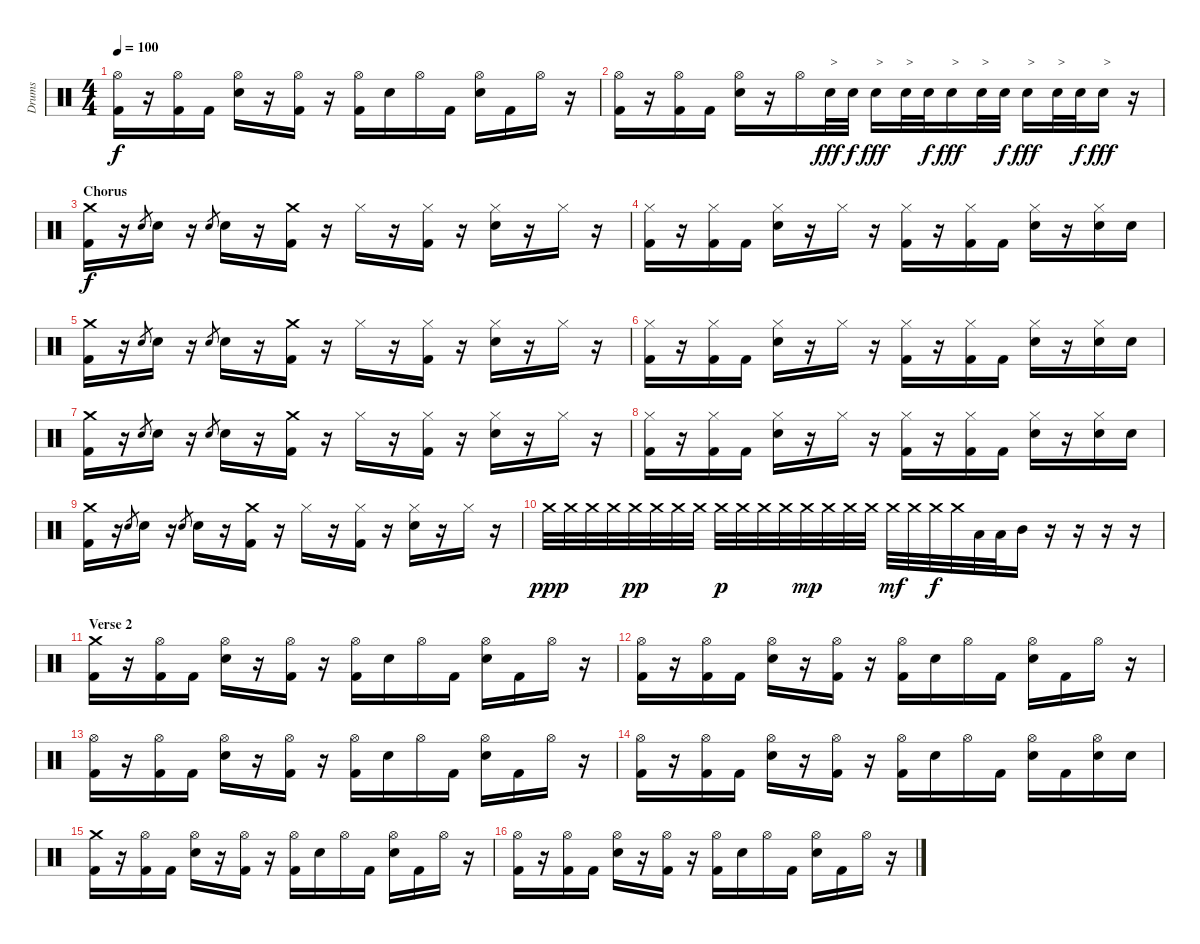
\track ("Drums" "Drums") {instrument percussion}
\staff {score}
\articulation defaults
\ts (4 4)
\tempo 100
\clef neutral
\ks c
("Hi-Hat (open)" "Kick (hit) 2").16{dy f} r.16 ("Hi-Hat (open)" "Kick (hit) 2").16 "Kick (hit) 2".16 ("Hi-Hat (open)" "Snare (hit) 2").16 r.16 ("Hi-Hat (open)" "Kick (hit) 2").16 r.16 ("Hi-Hat (open)" "Kick (hit) 2").16 "Snare (hit) 2".16 "Hi-Hat (open)".16 "Kick (hit) 2".16 ("Hi-Hat (open)" "Snare (hit) 2").16 "Kick (hit) 2".16 "Hi-Hat (open)".16 r.16 |
("Hi-Hat (open)" "Kick (hit) 2").16 r.16 ("Hi-Hat (open)" "Kick (hit) 2").16 "Kick (hit) 2".16 ("Hi-Hat (open)" "Snare (hit) 2").16 r.16 "Hi-Hat (open)".16 "Snare (hit) 2".32{txt ">" dy fff} "Snare (hit) 2".32{dy f} "Snare (hit) 2".16{txt ">" dy fff} "Snare (hit) 2".32{txt ">"} "Snare (hit) 2".32{dy f} "Snare (hit) 2".16{txt ">" dy fff} "Snare (hit) 2".32{txt ">"} "Snare (hit) 2".32{dy f} "Snare (hit) 2".16{txt ">" dy fff} "Snare (hit) 2".32{txt ">"} "Snare (hit) 2".32{dy f} "Snare (hit) 2".16{txt ">" dy fff} r.16 |
\section ("" "Chorus")
("Crash medium (hit)" "Kick (hit) 2").16{dy f} r.16 "Snare (hit) 2".8{gr} "Snare (hit) 2".16 r.16 "Snare (hit) 2".8{gr} "Snare (hit) 2".16 r.16 ("Crash medium (hit)" "Kick (hit) 2").16 r.16 "Hi-Hat (closed)".16 r.16 ("Hi-Hat (closed)" "Kick (hit) 2").16 r.16 ("Hi-Hat (closed)" "Snare (hit) 2").16 r.16 "Hi-Hat (closed)".16 r.16 |
("Hi-Hat (closed)" "Kick (hit) 2").16 r.16 ("Hi-Hat (closed)" "Kick (hit) 2").16 "Kick (hit) 2".16 ("Hi-Hat (closed)" "Snare (hit) 2").16 r.16 "Hi-Hat (closed)".16 r.16 ("Hi-Hat (closed)" "Kick (hit) 2").16 r.16 ("Hi-Hat (closed)" "Kick (hit) 2").16 "Kick (hit) 2".16 ("Hi-Hat (closed)" "Snare (hit) 2").16 r.16 ("Hi-Hat (closed)" "Snare (hit) 2").16 "Snare (hit) 2".16 |
("Crash medium (hit)" "Kick (hit) 2").16 r.16 "Snare (hit) 2".8{gr} "Snare (hit) 2".16 r.16 "Snare (hit) 2".8{gr} "Snare (hit) 2".16 r.16 ("Crash medium (hit)" "Kick (hit) 2").16 r.16 "Hi-Hat (closed)".16 r.16 ("Hi-Hat (closed)" "Kick (hit) 2").16 r.16 ("Hi-Hat (closed)" "Snare (hit) 2").16 r.16 "Hi-Hat (closed)".16 r.16 |
("Hi-Hat (closed)" "Kick (hit) 2").16 r.16 ("Hi-Hat (closed)" "Kick (hit) 2").16 "Kick (hit) 2".16 ("Hi-Hat (closed)" "Snare (hit) 2").16 r.16 "Hi-Hat (closed)".16 r.16 ("Hi-Hat (closed)" "Kick (hit) 2").16 r.16 ("Hi-Hat (closed)" "Kick (hit) 2").16 "Kick (hit) 2".16 ("Hi-Hat (closed)" "Snare (hit) 2").16 r.16 ("Hi-Hat (closed)" "Snare (hit) 2").16 "Snare (hit) 2".16 |
("Crash medium (hit)" "Kick (hit) 2").16 r.16 "Snare (hit) 2".8{gr} "Snare (hit) 2".16 r.16 "Snare (hit) 2".8{gr} "Snare (hit) 2".16 r.16 ("Crash medium (hit)" "Kick (hit) 2").16 r.16 "Hi-Hat (closed)".16 r.16 ("Hi-Hat (closed)" "Kick (hit) 2").16 r.16 ("Hi-Hat (closed)" "Snare (hit) 2").16 r.16 "Hi-Hat (closed)".16 r.16 |
("Hi-Hat (closed)" "Kick (hit) 2").16 r.16 ("Hi-Hat (closed)" "Kick (hit) 2").16 "Kick (hit) 2".16 ("Hi-Hat (closed)" "Snare (hit) 2").16 r.16 "Hi-Hat (closed)".16 r.16 ("Hi-Hat (closed)" "Kick (hit) 2").16 r.16 ("Hi-Hat (closed)" "Kick (hit) 2").16 "Kick (hit) 2".16 ("Hi-Hat (closed)" "Snare (hit) 2").16 r.16 ("Hi-Hat (closed)" "Snare (hit) 2").16 "Snare (hit) 2".16 |
("Crash medium (hit)" "Kick (hit) 2").16 r.16 "Snare (hit) 2".8{gr} "Snare (hit) 2".16 r.16 "Snare (hit) 2".8{gr} "Snare (hit) 2".16 r.16 ("Crash medium (hit)" "Kick (hit) 2").16 r.16 "Hi-Hat (closed)".16 r.16 ("Hi-Hat (closed)" "Kick (hit) 2").16 r.16 ("Hi-Hat (closed)" "Snare (hit) 2").16 r.16 "Hi-Hat (closed)".16 r.16 |
"Crash medium (hit)".32{dy ppp} "Crash medium (hit)".32 "Crash medium (hit)".32 "Crash medium (hit)".32 "Crash medium (hit)".32{dy pp} "Crash medium (hit)".32 "Crash medium (hit)".32 "Crash medium (hit)".32 "Crash medium (hit)".32{dy p} "Crash medium (hit)".32 "Crash medium (hit)".32 "Crash medium (hit)".32 "Crash medium (hit)".32{dy mp} "Crash medium (hit)".32 "Crash medium (hit)".32 "Crash medium (hit)".32 "Crash medium (hit)".32{dy mf} "Crash medium (hit)".32 "Crash medium (hit)".32{dy f} "Crash medium (hit)".32 "Low Floor Tom (hit)".32 "Low Floor Tom (hit)".32 "Mid Tom (hit)".16 r.16 r.16 r.16 r.16 |
\section ("" "Verse 2")
("Crash medium (hit)" "Kick (hit) 2").16 r.16 ("Hi-Hat (open)" "Kick (hit) 2").16 "Kick (hit) 2".16 ("Hi-Hat (open)" "Snare (hit) 2").16 r.16 ("Hi-Hat (open)" "Kick (hit) 2").16 r.16 ("Hi-Hat (open)" "Kick (hit) 2").16 "Snare (hit) 2".16 "Hi-Hat (open)".16 "Kick (hit) 2".16 ("Hi-Hat (open)" "Snare (hit) 2").16 "Kick (hit) 2".16 "Hi-Hat (open)".16 r.16 |
("Hi-Hat (open)" "Kick (hit) 2").16 r.16 ("Hi-Hat (open)" "Kick (hit) 2").16 "Kick (hit) 2".16 ("Hi-Hat (open)" "Snare (hit) 2").16 r.16 ("Hi-Hat (open)" "Kick (hit) 2").16 r.16 ("Hi-Hat (open)" "Kick (hit) 2").16 "Snare (hit) 2".16 "Hi-Hat (open)".16 "Kick (hit) 2".16 ("Hi-Hat (open)" "Snare (hit) 2").16 "Kick (hit) 2".16 "Hi-Hat (open)".16 r.16 |
("Hi-Hat (open)" "Kick (hit) 2").16 r.16 ("Hi-Hat (open)" "Kick (hit) 2").16 "Kick (hit) 2".16 ("Hi-Hat (open)" "Snare (hit) 2").16 r.16 ("Hi-Hat (open)" "Kick (hit) 2").16 r.16 ("Hi-Hat (open)" "Kick (hit) 2").16 "Snare (hit) 2".16 "Hi-Hat (open)".16 "Kick (hit) 2".16 ("Hi-Hat (open)" "Snare (hit) 2").16 "Kick (hit) 2".16 "Hi-Hat (open)".16 r.16 |
("Hi-Hat (open)" "Kick (hit) 2").16 r.16 ("Hi-Hat (open)" "Kick (hit) 2").16 "Kick (hit) 2".16 ("Hi-Hat (open)" "Snare (hit) 2").16 r.16 ("Hi-Hat (open)" "Kick (hit) 2").16 r.16 ("Hi-Hat (open)" "Kick (hit) 2").16 "Snare (hit) 2".16 "Hi-Hat (open)".16 "Kick (hit) 2".16 ("Hi-Hat (open)" "Snare (hit) 2").16 "Kick (hit) 2".16 ("Hi-Hat (open)" "Snare (hit) 2").16 "Snare (hit) 2".16 |
("Crash medium (hit)" "Kick (hit) 2").16 r.16 ("Hi-Hat (open)" "Kick (hit) 2").16 "Kick (hit) 2".16 ("Hi-Hat (open)" "Snare (hit) 2").16 r.16 ("Hi-Hat (open)" "Kick (hit) 2").16 r.16 ("Hi-Hat (open)" "Kick (hit) 2").16 "Snare (hit) 2".16 "Hi-Hat (open)".16 "Kick (hit) 2".16 ("Hi-Hat (open)" "Snare (hit) 2").16 "Kick (hit) 2".16 "Hi-Hat (open)".16 r.16 |
("Hi-Hat (open)" "Kick (hit) 2").16 r.16 ("Hi-Hat (open)" "Kick (hit) 2").16 "Kick (hit) 2".16 ("Hi-Hat (open)" "Snare (hit) 2").16 r.16 ("Hi-Hat (open)" "Kick (hit) 2").16 r.16 ("Hi-Hat (open)" "Kick (hit) 2").16 "Snare (hit) 2".16 "Hi-Hat (open)".16 "Kick (hit) 2".16 ("Hi-Hat (open)" "Snare (hit) 2").16 "Kick (hit) 2".16 "Hi-Hat (open)".16 r.16
